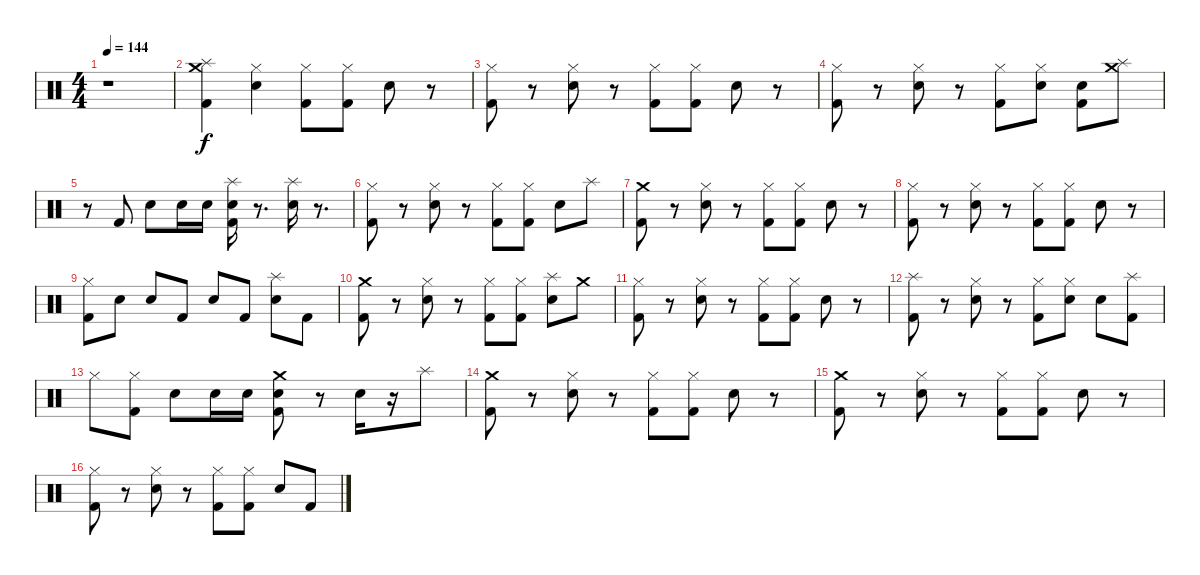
\track "" {instrument percussion}
\staff {score}
\articulation defaults
\ts (4 4)
\tempo 144
\clef neutral
\ks c
r.1{dy f} |
("Splash (hit)" "Crash medium (hit)" "Kick (hit) 2").4 ("Hi-Hat (closed)" "Snare (hit) 2").4 ("Hi-Hat (closed)" "Kick (hit) 2").8 ("Hi-Hat (closed)" "Kick (hit) 2").8 "Snare (hit) 2".8 r.8 |
("Hi-Hat (closed)" "Kick (hit) 2").8 r.8 ("Hi-Hat (closed)" "Snare (hit) 2").8 r.8 ("Hi-Hat (closed)" "Kick (hit) 2").8 ("Hi-Hat (closed)" "Kick (hit) 2").8 "Snare (hit) 2".8 r.8 |
("Hi-Hat (closed)" "Kick (hit) 2").8 r.8 ("Hi-Hat (closed)" "Snare (hit) 2").8 r.8 ("Hi-Hat (closed)" "Kick (hit) 2").8 ("Hi-Hat (closed)" "Snare (hit) 2").8 ("Snare (hit) 2" "Kick (hit) 2").8 ("Crash medium (hit)" "Splash (hit)").8 |
r.8 "Kick (hit) 2".8 "Snare (hit) 2".8 "Snare (hit) 2".16 "Snare (hit) 2".16 ("Splash (hit)" "Kick (hit) 2" "Snare (hit) 2").16 r.8{d} ("Splash (hit)" "Snare (hit) 2").16 r.8{d} |
("Hi-Hat (closed)" "Kick (hit) 2").8 r.8 ("Hi-Hat (closed)" "Snare (hit) 2").8 r.8 ("Hi-Hat (closed)" "Kick (hit) 2").8 ("Hi-Hat (closed)" "Kick (hit) 2").8 "Snare (hit) 2".8 "Splash (hit)".8 |
("Crash medium (hit)" "Kick (hit) 2").8 r.8 ("Hi-Hat (closed)" "Snare (hit) 2").8 r.8 ("Hi-Hat (closed)" "Kick (hit) 2").8 ("Hi-Hat (closed)" "Kick (hit) 2").8 "Snare (hit) 2".8 r.8 |
("Hi-Hat (closed)" "Kick (hit) 2").8 r.8 ("Hi-Hat (closed)" "Snare (hit) 2").8 r.8 ("Hi-Hat (closed)" "Kick (hit) 2").8 ("Hi-Hat (closed)" "Kick (hit) 2").8 "Snare (hit) 2".8 r.8 |
("Hi-Hat (closed)" "Kick (hit) 2").8 "Snare (hit) 2".8 "Snare (hit) 2".8 "Kick (hit) 2".8 "Snare (hit) 2".8 "Kick (hit) 2".8 ("Splash (hit)" "Snare (hit) 2").8 "Kick (hit) 2".8 |
("Crash medium (hit)" "Kick (hit) 2").8 r.8 ("Hi-Hat (closed)" "Snare (hit) 2").8 r.8 ("Hi-Hat (closed)" "Kick (hit) 2").8 ("Hi-Hat (closed)" "Kick (hit) 2").8 ("Splash (hit)" "Snare (hit) 2").8 "Crash medium (hit)".8 |
("Hi-Hat (closed)" "Kick (hit) 2").8 r.8 ("Hi-Hat (closed)" "Snare (hit) 2").8 r.8 ("Hi-Hat (closed)" "Kick (hit) 2").8 ("Hi-Hat (closed)" "Kick (hit) 2").8 "Snare (hit) 2".8 r.8 |
("Splash (hit)" "Kick (hit) 2").8 r.8 ("Hi-Hat (closed)" "Snare (hit) 2").8 r.8 ("Hi-Hat (closed)" "Kick (hit) 2").8 ("Hi-Hat (closed)" "Snare (hit) 2").8 "Snare (hit) 2".8 ("Splash (hit)" "Kick (hit) 2").8 |
"Hi-Hat (closed)".8 ("Hi-Hat (closed)" "Kick (hit) 2").8 "Snare (hit) 2".8 "Snare (hit) 2".16 "Snare (hit) 2".16 ("Crash medium (hit)" "Kick (hit) 2" "Snare (hit) 2").8 r.8 "Snare (hit) 2".16 r.16 "Splash (hit)".8 |
("Crash medium (hit)" "Kick (hit) 2").8 r.8 ("Hi-Hat (closed)" "Snare (hit) 2").8 r.8 ("Hi-Hat (closed)" "Kick (hit) 2").8 ("Hi-Hat (closed)" "Kick (hit) 2").8 "Snare (hit) 2".8 r.8 |
("Crash medium (hit)" "Kick (hit) 2").8 r.8 ("Hi-Hat (closed)" "Snare (hit) 2").8 r.8 ("Hi-Hat (closed)" "Kick (hit) 2").8 ("Hi-Hat (closed)" "Kick (hit) 2").8 "Snare (hit) 2".8 r.8 |
("Hi-Hat (closed)" "Kick (hit) 2").8 r.8 ("Hi-Hat (closed)" "Snare (hit) 2").8 r.8 ("Hi-Hat (closed)" "Kick (hit) 2").8 ("Hi-Hat (closed)" "Kick (hit) 2").8 "Snare (hit) 2".8 "Kick (hit) 2".8
